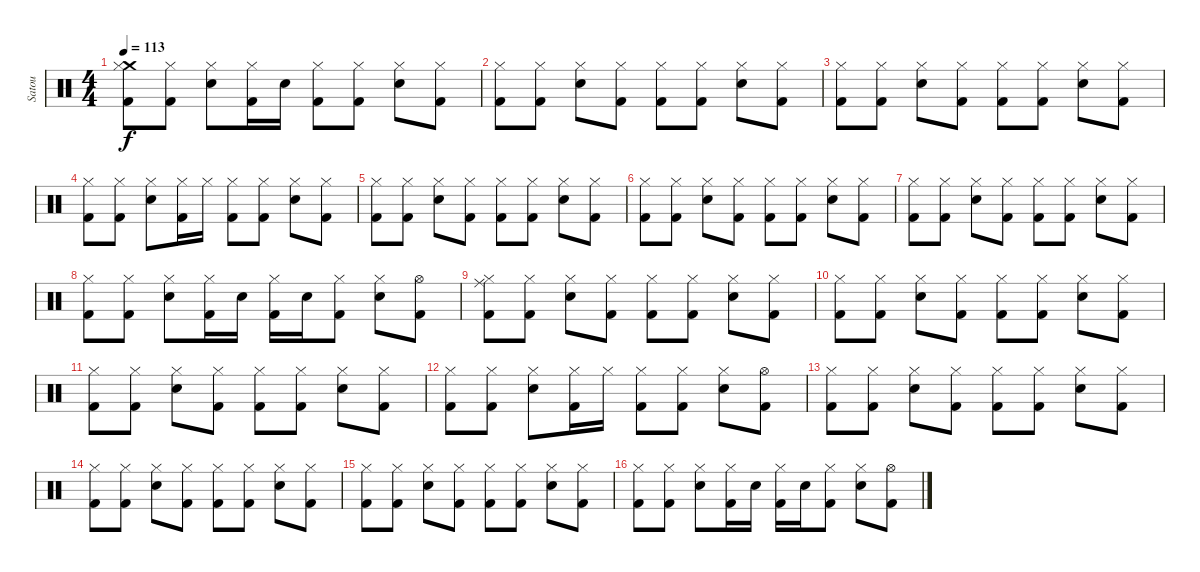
\track ("Satou" "Satou") {instrument percussion}
\staff {score}
\articulation defaults
\ts (4 4)
\tempo 113
\clef neutral
\ks c
("Crash medium (hit)" "Hi-Hat (closed)" "Kick (hit) 2").8{dy f} ("Hi-Hat (closed)" "Kick (hit) 2").8 ("Hi-Hat (closed)" "Electric Snare (hit)").8 ("Hi-Hat (closed)" "Kick (hit) 2").16 "Electric Snare (hit)".16 ("Hi-Hat (closed)" "Kick (hit) 2").8 ("Hi-Hat (closed)" "Kick (hit) 2").8 ("Hi-Hat (closed)" "Electric Snare (hit)").8 ("Hi-Hat (closed)" "Kick (hit) 2").8 |
("Hi-Hat (closed)" "Kick (hit) 2").8 ("Hi-Hat (closed)" "Kick (hit) 2").8 ("Hi-Hat (closed)" "Electric Snare (hit)").8 ("Hi-Hat (closed)" "Kick (hit) 2").8 ("Hi-Hat (closed)" "Kick (hit) 2").8 ("Hi-Hat (closed)" "Kick (hit) 2").8 ("Hi-Hat (closed)" "Electric Snare (hit)").8 ("Hi-Hat (closed)" "Kick (hit) 2").8 |
("Hi-Hat (closed)" "Kick (hit) 2").8 ("Hi-Hat (closed)" "Kick (hit) 2").8 ("Hi-Hat (closed)" "Electric Snare (hit)").8 ("Hi-Hat (closed)" "Kick (hit) 2").8 ("Hi-Hat (closed)" "Kick (hit) 2").8 ("Hi-Hat (closed)" "Kick (hit) 2").8 ("Hi-Hat (closed)" "Electric Snare (hit)").8 ("Hi-Hat (closed)" "Kick (hit) 2").8 |
("Hi-Hat (closed)" "Kick (hit) 2").8 ("Hi-Hat (closed)" "Kick (hit) 2").8 ("Hi-Hat (closed)" "Electric Snare (hit)").8 ("Hi-Hat (closed)" "Kick (hit) 2").16 "Hi-Hat (closed)".16 ("Hi-Hat (closed)" "Kick (hit) 2").8 ("Hi-Hat (closed)" "Kick (hit) 2").8 ("Hi-Hat (closed)" "Electric Snare (hit)").8 ("Hi-Hat (closed)" "Kick (hit) 2").8 |
("Hi-Hat (closed)" "Kick (hit) 2").8 ("Hi-Hat (closed)" "Kick (hit) 2").8 ("Hi-Hat (closed)" "Electric Snare (hit)").8 ("Hi-Hat (closed)" "Kick (hit) 2").8 ("Hi-Hat (closed)" "Kick (hit) 2").8 ("Hi-Hat (closed)" "Kick (hit) 2").8 ("Hi-Hat (closed)" "Electric Snare (hit)").8 ("Hi-Hat (closed)" "Kick (hit) 2").8 |
("Hi-Hat (closed)" "Kick (hit) 2").8 ("Hi-Hat (closed)" "Kick (hit) 2").8 ("Hi-Hat (closed)" "Electric Snare (hit)").8 ("Hi-Hat (closed)" "Kick (hit) 2").8 ("Hi-Hat (closed)" "Kick (hit) 2").8 ("Hi-Hat (closed)" "Kick (hit) 2").8 ("Hi-Hat (closed)" "Electric Snare (hit)").8 ("Hi-Hat (closed)" "Kick (hit) 2").8 |
("Hi-Hat (closed)" "Kick (hit) 2").8 ("Hi-Hat (closed)" "Kick (hit) 2").8 ("Hi-Hat (closed)" "Electric Snare (hit)").8 ("Hi-Hat (closed)" "Kick (hit) 2").8 ("Hi-Hat (closed)" "Kick (hit) 2").8 ("Hi-Hat (closed)" "Kick (hit) 2").8 ("Hi-Hat (closed)" "Electric Snare (hit)").8 ("Hi-Hat (closed)" "Kick (hit) 2").8 |
("Hi-Hat (closed)" "Kick (hit) 2").8 ("Hi-Hat (closed)" "Kick (hit) 2").8 ("Hi-Hat (closed)" "Electric Snare (hit)").8 ("Hi-Hat (closed)" "Kick (hit) 2").16 "Electric Snare (hit)".16 ("Hi-Hat (closed)" "Kick (hit) 2").16 "Electric Snare (hit)".16 ("Hi-Hat (closed)" "Kick (hit) 2").8 ("Hi-Hat (closed)" "Electric Snare (hit)").8 ("Hi-Hat (open)" "Kick (hit) 2").8 |
("Ride (middle)" "Hi-Hat (closed)" "Kick (hit) 2").8 ("Hi-Hat (closed)" "Kick (hit) 2").8 ("Hi-Hat (closed)" "Electric Snare (hit)").8 ("Hi-Hat (closed)" "Kick (hit) 2").8 ("Hi-Hat (closed)" "Kick (hit) 2").8 ("Hi-Hat (closed)" "Kick (hit) 2").8 ("Hi-Hat (closed)" "Electric Snare (hit)").8 ("Hi-Hat (closed)" "Kick (hit) 2").8 |
("Hi-Hat (closed)" "Kick (hit) 2").8 ("Hi-Hat (closed)" "Kick (hit) 2").8 ("Hi-Hat (closed)" "Electric Snare (hit)").8 ("Hi-Hat (closed)" "Kick (hit) 2").8 ("Hi-Hat (closed)" "Kick (hit) 2").8 ("Hi-Hat (closed)" "Kick (hit) 2").8 ("Hi-Hat (closed)" "Electric Snare (hit)").8 ("Hi-Hat (closed)" "Kick (hit) 2").8 |
("Hi-Hat (closed)" "Kick (hit) 2").8 ("Hi-Hat (closed)" "Kick (hit) 2").8 ("Hi-Hat (closed)" "Electric Snare (hit)").8 ("Hi-Hat (closed)" "Kick (hit) 2").8 ("Hi-Hat (closed)" "Kick (hit) 2").8 ("Hi-Hat (closed)" "Kick (hit) 2").8 ("Hi-Hat (closed)" "Electric Snare (hit)").8 ("Hi-Hat (closed)" "Kick (hit) 2").8 |
("Hi-Hat (closed)" "Kick (hit) 2").8 ("Hi-Hat (closed)" "Kick (hit) 2").8 ("Hi-Hat (closed)" "Electric Snare (hit)").8 ("Hi-Hat (closed)" "Kick (hit) 2").16 "Hi-Hat (closed)".16 ("Hi-Hat (closed)" "Kick (hit) 2").8 ("Hi-Hat (closed)" "Kick (hit) 2").8 ("Hi-Hat (closed)" "Electric Snare (hit)").8 ("Hi-Hat (open)" "Kick (hit) 2").8 |
("Hi-Hat (closed)" "Kick (hit) 2").8 ("Hi-Hat (closed)" "Kick (hit) 2").8 ("Hi-Hat (closed)" "Electric Snare (hit)").8 ("Hi-Hat (closed)" "Kick (hit) 2").8 ("Hi-Hat (closed)" "Kick (hit) 2").8 ("Hi-Hat (closed)" "Kick (hit) 2").8 ("Hi-Hat (closed)" "Electric Snare (hit)").8 ("Hi-Hat (closed)" "Kick (hit) 2").8 |
("Hi-Hat (closed)" "Kick (hit) 2").8 ("Hi-Hat (closed)" "Kick (hit) 2").8 ("Hi-Hat (closed)" "Electric Snare (hit)").8 ("Hi-Hat (closed)" "Kick (hit) 2").8 ("Hi-Hat (closed)" "Kick (hit) 2").8 ("Hi-Hat (closed)" "Kick (hit) 2").8 ("Hi-Hat (closed)" "Electric Snare (hit)").8 ("Hi-Hat (closed)" "Kick (hit) 2").8 |
("Hi-Hat (closed)" "Kick (hit) 2").8 ("Hi-Hat (closed)" "Kick (hit) 2").8 ("Hi-Hat (closed)" "Electric Snare (hit)").8 ("Hi-Hat (closed)" "Kick (hit) 2").8 ("Hi-Hat (closed)" "Kick (hit) 2").8 ("Hi-Hat (closed)" "Kick (hit) 2").8 ("Hi-Hat (closed)" "Electric Snare (hit)").8 ("Hi-Hat (closed)" "Kick (hit) 2").8 |
("Hi-Hat (closed)" "Kick (hit) 2").8 ("Hi-Hat (closed)" "Kick (hit) 2").8 ("Hi-Hat (closed)" "Electric Snare (hit)").8 ("Hi-Hat (closed)" "Kick (hit) 2").16 "Electric Snare (hit)".16 ("Hi-Hat (closed)" "Kick (hit) 2").16 "Electric Snare (hit)".16 ("Hi-Hat (closed)" "Kick (hit) 2").8 ("Hi-Hat (closed)" "Electric Snare (hit)").8 ("Hi-Hat (open)" "Kick (hit) 2").8
